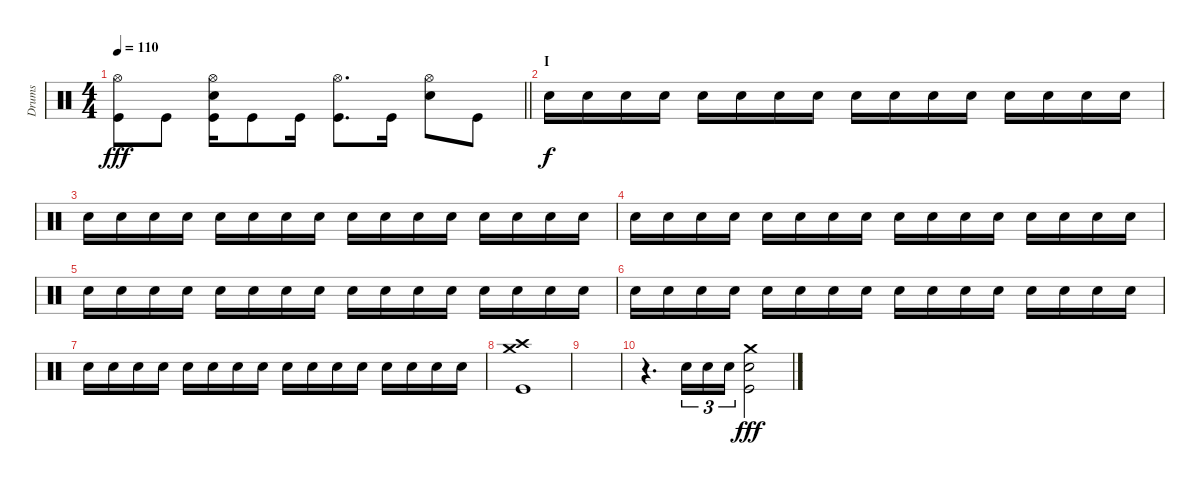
\track ("Drums" "Drums") {instrument percussion}
\staff {score}
\articulation defaults
\ts (4 4)
\tempo 110
\clef neutral
\barLineRight lightlight
\ks c
("Hi-Hat (open)" "Kick (hit)").8{dy fff} "Kick (hit)".8 ("Hi-Hat (open)" "Electric Snare (hit)" "Kick (hit)").16 "Kick (hit)".8 "Kick (hit)".16 ("Hi-Hat (open)" "Kick (hit)").8{d} "Kick (hit)".16 ("Hi-Hat (open)" "Electric Snare (hit)").8 "Kick (hit)".8 |
\section ("" "I")
"Electric Snare (hit)".16{dy f} "Electric Snare (hit)".16 "Electric Snare (hit)".16 "Electric Snare (hit)".16 "Electric Snare (hit)".16 "Electric Snare (hit)".16 "Electric Snare (hit)".16 "Electric Snare (hit)".16 "Electric Snare (hit)".16 "Electric Snare (hit)".16 "Electric Snare (hit)".16 "Electric Snare (hit)".16 "Electric Snare (hit)".16 "Electric Snare (hit)".16 "Electric Snare (hit)".16 "Electric Snare (hit)".16 |
"Electric Snare (hit)".16 "Electric Snare (hit)".16 "Electric Snare (hit)".16 "Electric Snare (hit)".16 "Electric Snare (hit)".16 "Electric Snare (hit)".16 "Electric Snare (hit)".16 "Electric Snare (hit)".16 "Electric Snare (hit)".16 "Electric Snare (hit)".16 "Electric Snare (hit)".16 "Electric Snare (hit)".16 "Electric Snare (hit)".16 "Electric Snare (hit)".16 "Electric Snare (hit)".16 "Electric Snare (hit)".16 |
"Electric Snare (hit)".16 "Electric Snare (hit)".16 "Electric Snare (hit)".16 "Electric Snare (hit)".16 "Electric Snare (hit)".16 "Electric Snare (hit)".16 "Electric Snare (hit)".16 "Electric Snare (hit)".16 "Electric Snare (hit)".16 "Electric Snare (hit)".16 "Electric Snare (hit)".16 "Electric Snare (hit)".16 "Electric Snare (hit)".16 "Electric Snare (hit)".16 "Electric Snare (hit)".16 "Electric Snare (hit)".16 |
"Electric Snare (hit)".16 "Electric Snare (hit)".16 "Electric Snare (hit)".16 "Electric Snare (hit)".16 "Electric Snare (hit)".16 "Electric Snare (hit)".16 "Electric Snare (hit)".16 "Electric Snare (hit)".16 "Electric Snare (hit)".16 "Electric Snare (hit)".16 "Electric Snare (hit)".16 "Electric Snare (hit)".16 "Electric Snare (hit)".16 "Electric Snare (hit)".16 "Electric Snare (hit)".16 "Electric Snare (hit)".16 |
"Electric Snare (hit)".16 "Electric Snare (hit)".16 "Electric Snare (hit)".16 "Electric Snare (hit)".16 "Electric Snare (hit)".16 "Electric Snare (hit)".16 "Electric Snare (hit)".16 "Electric Snare (hit)".16 "Electric Snare (hit)".16 "Electric Snare (hit)".16 "Electric Snare (hit)".16 "Electric Snare (hit)".16 "Electric Snare (hit)".16 "Electric Snare (hit)".16 "Electric Snare (hit)".16 "Electric Snare (hit)".16 |
"Electric Snare (hit)".16 "Electric Snare (hit)".16 "Electric Snare (hit)".16 "Electric Snare (hit)".16 "Electric Snare (hit)".16 "Electric Snare (hit)".16 "Electric Snare (hit)".16 "Electric Snare (hit)".16 "Electric Snare (hit)".16 "Electric Snare (hit)".16 "Electric Snare (hit)".16 "Electric Snare (hit)".16 "Electric Snare (hit)".16 "Electric Snare (hit)".16 "Electric Snare (hit)".16 "Electric Snare (hit)".16 |
("Crash medium (hit)" "Crash high (hit)" "Kick (hit)").1 |
|
r.4{d} "Electric Snare (hit)".16{tu (3 2)} "Electric Snare (hit)".16{tu (3 2)} "Electric Snare (hit)".16{tu (3 2)} ("Crash medium (hit)" "Electric Snare (hit)" "Kick (hit)").2{dy fff}
